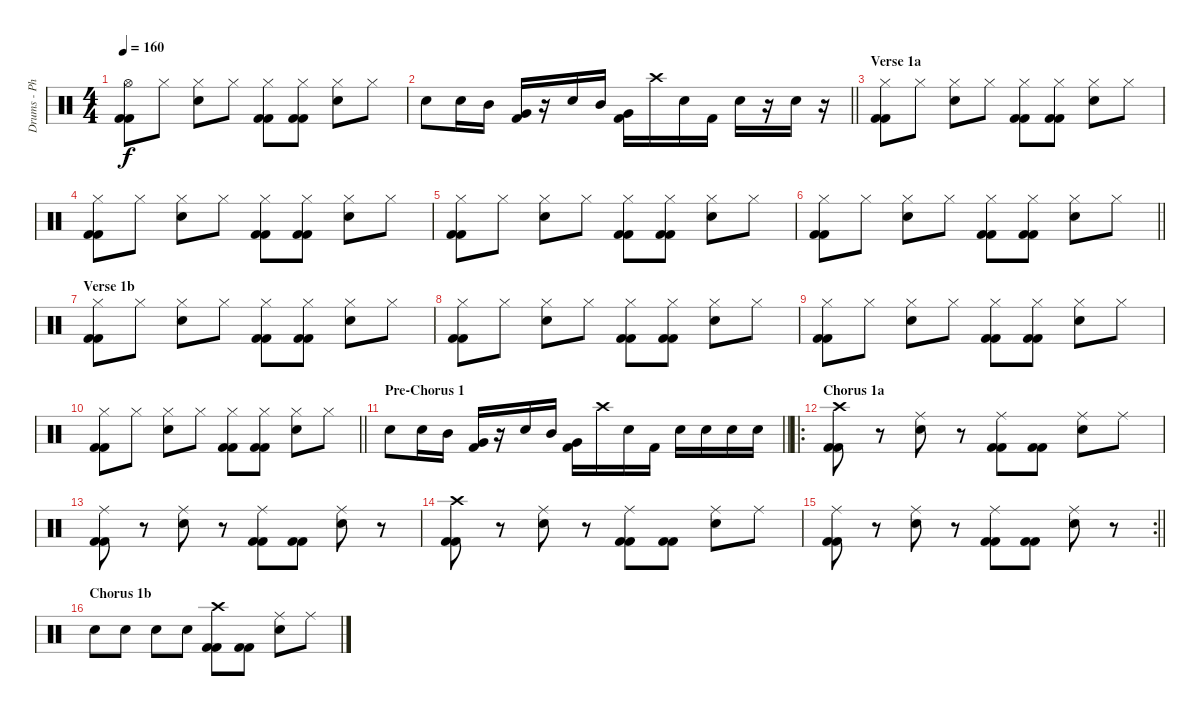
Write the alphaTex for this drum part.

\track ("Drums - Philipp Wirth" "Drums - Ph") {instrument percussion}
\staff {score}
\articulation defaults
\ts (4 4)
\tempo 160
\clef neutral
\ks c
("Hi-Hat (open)" "Kick (hit) 2" "Kick (hit) 2").8{dy f} "Hi-Hat (closed)".8 ("Hi-Hat (closed)" "Electric Snare (hit)").8 "Hi-Hat (closed)".8 ("Hi-Hat (closed)" "Kick (hit) 2" "Kick (hit) 2").8 ("Hi-Hat (closed)" "Kick (hit) 2" "Kick (hit) 2").8 ("Hi-Hat (closed)" "Electric Snare (hit)").8 "Hi-Hat (closed)".8 |
\barLineRight lightlight "Electric Snare (hit)".8 "Electric Snare (hit)".16 "Mid Tom (hit)".16
("Very Low Tom (hit)" "Kick (hit) 2").16 r.16 "Electric Snare (hit)".16 "Mid Tom (hit)".16 ("Very Low Tom (hit)" "Kick (hit) 2").16 "Crash high (hit)".16 "Electric Snare (hit)".16 "Kick (hit) 2".16 "Electric Snare (hit)".16 r.16 "Electric Snare (hit)".16 r.16 |
\section ("" "Verse 1a")
("Hi-Hat (closed)" "Kick (hit) 2" "Kick (hit) 2").8 "Hi-Hat (closed)".8 ("Hi-Hat (closed)" "Electric Snare (hit)").8 "Hi-Hat (closed)".8 ("Hi-Hat (closed)" "Kick (hit) 2" "Kick (hit) 2").8 ("Hi-Hat (closed)" "Kick (hit) 2" "Kick (hit) 2").8 ("Hi-Hat (closed)" "Electric Snare (hit)").8 "Hi-Hat (closed)".8 |
("Hi-Hat (closed)" "Kick (hit) 2" "Kick (hit) 2").8 "Hi-Hat (closed)".8 ("Hi-Hat (closed)" "Electric Snare (hit)").8 "Hi-Hat (closed)".8 ("Hi-Hat (closed)" "Kick (hit) 2" "Kick (hit) 2").8 ("Hi-Hat (closed)" "Kick (hit) 2" "Kick (hit) 2").8 ("Hi-Hat (closed)" "Electric Snare (hit)").8 "Hi-Hat (closed)".8 |
("Hi-Hat (closed)" "Kick (hit) 2" "Kick (hit) 2").8 "Hi-Hat (closed)".8 ("Hi-Hat (closed)" "Electric Snare (hit)").8 "Hi-Hat (closed)".8 ("Hi-Hat (closed)" "Kick (hit) 2" "Kick (hit) 2").8 ("Hi-Hat (closed)" "Kick (hit) 2" "Kick (hit) 2").8 ("Hi-Hat (closed)" "Electric Snare (hit)").8 "Hi-Hat (closed)".8 |
\barLineRight lightlight
("Hi-Hat (closed)" "Kick (hit) 2" "Kick (hit) 2").8 "Hi-Hat (closed)".8 ("Hi-Hat (closed)" "Electric Snare (hit)").8 "Hi-Hat (closed)".8 ("Hi-Hat (closed)" "Kick (hit) 2" "Kick (hit) 2").8 ("Hi-Hat (closed)" "Kick (hit) 2" "Kick (hit) 2").8 ("Hi-Hat (closed)" "Electric Snare (hit)").8 "Hi-Hat (closed)".8 |
\section ("" "Verse 1b")
("Hi-Hat (closed)" "Kick (hit) 2" "Kick (hit) 2").8 "Hi-Hat (closed)".8 ("Hi-Hat (closed)" "Electric Snare (hit)").8 "Hi-Hat (closed)".8 ("Hi-Hat (closed)" "Kick (hit) 2" "Kick (hit) 2").8 ("Hi-Hat (closed)" "Kick (hit) 2" "Kick (hit) 2").8 ("Hi-Hat (closed)" "Electric Snare (hit)").8 "Hi-Hat (closed)".8 |
("Hi-Hat (closed)" "Kick (hit) 2" "Kick (hit) 2").8 "Hi-Hat (closed)".8 ("Hi-Hat (closed)" "Electric Snare (hit)").8 "Hi-Hat (closed)".8 ("Hi-Hat (closed)" "Kick (hit) 2" "Kick (hit) 2").8 ("Hi-Hat (closed)" "Kick (hit) 2" "Kick (hit) 2").8 ("Hi-Hat (closed)" "Electric Snare (hit)").8 "Hi-Hat (closed)".8 |
("Hi-Hat (closed)" "Kick (hit) 2" "Kick (hit) 2").8 "Hi-Hat (closed)".8 ("Hi-Hat (closed)" "Electric Snare (hit)").8 "Hi-Hat (closed)".8 ("Hi-Hat (closed)" "Kick (hit) 2" "Kick (hit) 2").8 ("Hi-Hat (closed)" "Kick (hit) 2" "Kick (hit) 2").8 ("Hi-Hat (closed)" "Electric Snare (hit)").8 "Hi-Hat (closed)".8 |
\barLineRight lightlight
("Hi-Hat (closed)" "Kick (hit) 2" "Kick (hit) 2").8 "Hi-Hat (closed)".8 ("Hi-Hat (closed)" "Electric Snare (hit)").8 "Hi-Hat (closed)".8 ("Hi-Hat (closed)" "Kick (hit) 2" "Kick (hit) 2").8 ("Hi-Hat (closed)" "Kick (hit) 2" "Kick (hit) 2").8 ("Hi-Hat (closed)" "Electric Snare (hit)").8 "Hi-Hat (closed)".8 |
\section ("" "Pre-Chorus 1")
\barLineRight lightlight "Electric Snare (hit)".8 "Electric Snare (hit)".16 "Mid Tom (hit)".16
("Very Low Tom (hit)" "Kick (hit) 2").16 r.16 "Electric Snare (hit)".16 "Mid Tom (hit)".16 ("Very Low Tom (hit)" "Kick (hit) 2").16 "Crash high (hit)".16 "Electric Snare (hit)".16 "Kick (hit) 2".16 "Electric Snare (hit)".16 "Electric Snare (hit)".16 "Electric Snare (hit)".16 "Electric Snare (hit)".16 |
\ro
\section ("" "Chorus 1a")
("Crash high (hit)" "Kick (hit) 2" "Kick (hit) 2").8 r.8 ("Ride (middle)" "Electric Snare (hit)").8 r.8 ("Ride (middle)" "Kick (hit) 2" "Kick (hit) 2").8 ("Kick (hit) 2" "Kick (hit) 2").8 ("Ride (middle)" "Electric Snare (hit)").8 "Ride (middle)".8 |
("Ride (middle)" "Kick (hit) 2" "Kick (hit) 2").8 r.8 ("Ride (middle)" "Electric Snare (hit)").8 r.8 ("Ride (middle)" "Kick (hit) 2" "Kick (hit) 2").8 ("Kick (hit) 2" "Kick (hit) 2").8 ("Ride (middle)" "Electric Snare (hit)").8 r.8 |
("Crash high (hit)" "Kick (hit) 2" "Kick (hit) 2").8 r.8 ("Ride (middle)" "Electric Snare (hit)").8 r.8 ("Ride (middle)" "Kick (hit) 2" "Kick (hit) 2").8 ("Kick (hit) 2" "Kick (hit) 2").8 ("Ride (middle)" "Electric Snare (hit)").8 "Ride (middle)".8 |
\rc 2
\barLineRight lightlight
("Ride (middle)" "Kick (hit) 2" "Kick (hit) 2").8 r.8 ("Ride (middle)" "Electric Snare (hit)").8 r.8 ("Ride (middle)" "Kick (hit) 2" "Kick (hit) 2").8 ("Kick (hit) 2" "Kick (hit) 2").8 ("Ride (middle)" "Electric Snare (hit)").8 r.8 |
\section ("" "Chorus 1b")
"Electric Snare (hit)".8 "Electric Snare (hit)".8 "Electric Snare (hit)".8 "Electric Snare (hit)".8 ("Crash high (hit)" "Kick (hit) 2" "Kick (hit) 2").8 ("Kick (hit) 2" "Kick (hit) 2").8 ("Ride (middle)" "Electric Snare (hit)").8 "Ride (middle)".8
